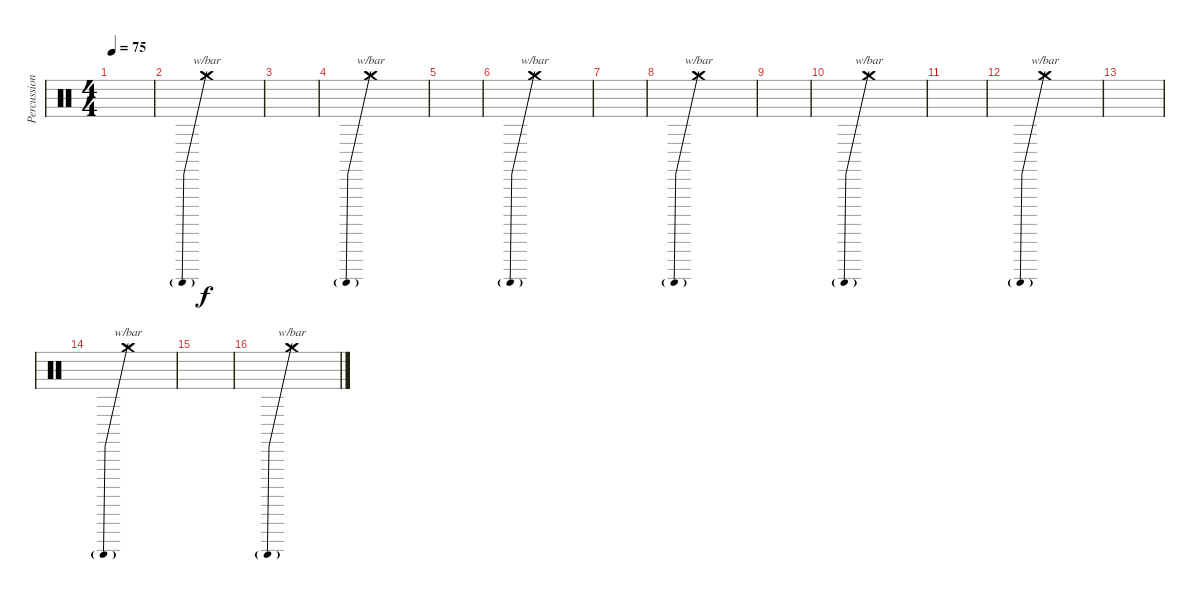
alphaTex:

\track ("Percussion" "Percussion") {instrument percussion}
\staff {score}
\articulation defaults
\ts (4 4)
\tempo 75
\clef neutral
\ks c
|
"Crash medium (hit)".1{tbe (predive default 0 -24 60 -24)} |
|
"Crash medium (hit)".1{tbe (predive default 0 -24 60 -24)} |
|
"Crash medium (hit)".1{tbe (predive default 0 -24 60 -24)} |
|
"Crash medium (hit)".1{tbe (predive default 0 -24 60 -24)} |
|
"Crash medium (hit)".1{tbe (predive default 0 -24 60 -24)} |
|
"Crash medium (hit)".1{tbe (predive default 0 -24 60 -24)} |
|
"Crash medium (hit)".1{tbe (predive default 0 -24 60 -24)} |
|
"Crash medium (hit)".1{tbe (predive default 0 -24 60 -24)}
